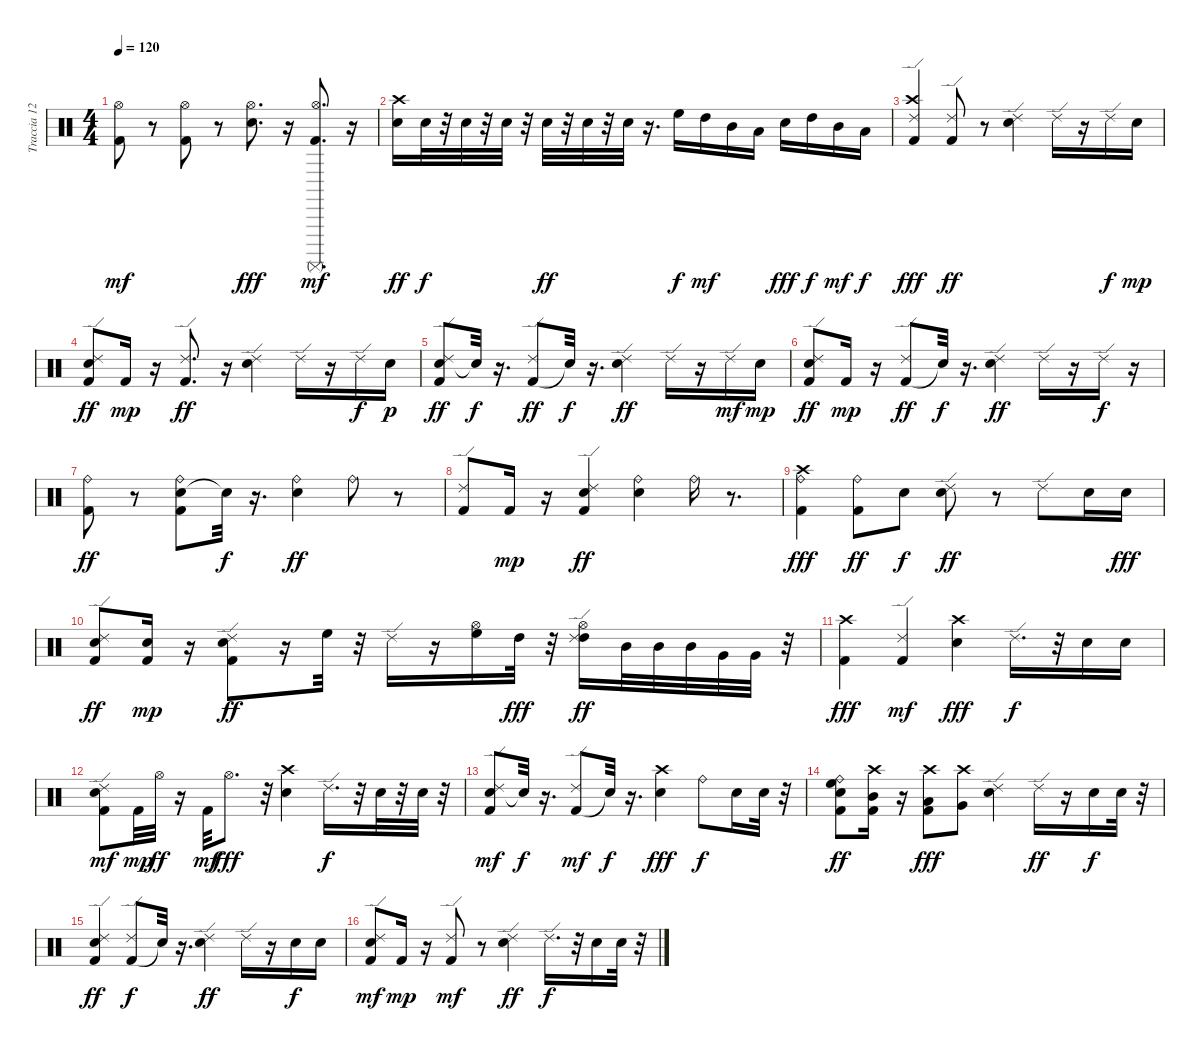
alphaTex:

\track ("Traccia 12-13-14-15-16-17-18" "Traccia 12") {instrument percussion}
\staff {score}
\articulation defaults
\ts (4 4)
\tempo 120
\clef neutral
\ks c
("Hi-Hat (open)" "Kick (hit) 2").8{dy mf} r.8 ("Hi-Hat (open)" "Kick (hit) 2").8 r.8 ("Hi-Hat (open)" "Electric Snare (hit)").8{d dy fff} r.16 ("Surdo (mute)" "Hi-Hat (open)" "Kick (hit) 2").8{d dy mf} r.16 |
("Electric Snare (hit)" "Crash high (hit)").16{dy ff} "Electric Snare (hit)".32{dy f} r.32 "Electric Snare (hit)".32 r.32 "Electric Snare (hit)".32 r.32 "Electric Snare (hit)".32{dy ff} r.32 "Electric Snare (hit)".32 r.32 "Electric Snare (hit)".32 r.16{d} "High Floor Tom (hit)".16{dy f} "High Tom (hit)".16{dy mf} "Mid Tom (hit)".16 "Low Tom (hit)".16 "Electric Snare (hit)".16{dy fff} "High Tom (hit)".16{dy f} "Mid Tom (hit)".16{dy mf} "Low Tom (hit)".16{dy f} |
("Kick (hit) 2" "Ride (edge) 2" "Crash high (hit)").4{dy fff} ("Kick (hit) 2" "Ride (edge) 2").8{dy ff} r.8 ("Electric Snare (hit)" "Ride (edge) 2").4 "Ride (edge) 2".16 r.16 "Ride (edge) 2".16{dy f} "Electric Snare (hit)".16{dy mp} |
("Electric Snare (hit)" "Kick (hit) 2" "Ride (edge) 2").8{dy ff} "Kick (hit) 2".16{dy mp} r.16 ("Kick (hit) 2" "Ride (edge) 2").8{d dy ff} r.16 ("Electric Snare (hit)" "Ride (edge) 2").4 "Ride (edge) 2".16 r.16 "Ride (edge) 2".16{dy f} "Electric Snare (hit)".16{dy p} |
("Electric Snare (hit)" "Kick (hit) 2" "Ride (edge) 2").8{dy ff} "Snare (hit)"{t}.32{dy f} r.16{d} ("Kick (hit) 2" "Ride (edge) 2").8{dy ff} "Snare (hit)"{t}.32{dy f} r.16{d} ("Electric Snare (hit)" "Ride (edge) 2").4{dy ff} "Ride (edge) 2".16 r.16 "Ride (edge) 2".16{dy mf} "Electric Snare (hit)".16{dy mp} |
("Electric Snare (hit)" "Kick (hit) 2" "Ride (edge) 2").8{dy ff} "Kick (hit) 2".16{dy mp} r.16 ("Kick (hit) 2" "Ride (edge) 2").8{dy ff} "Snare (hit)"{t}.32{dy f} r.16{d} ("Electric Snare (hit)" "Ride (edge) 2").4{dy ff} "Ride (edge) 2".16 r.16 "Ride (edge) 2".16{dy f} r.16 |
("Kick (hit) 2" "Ride (bell)").8{dy ff} r.8 ("Electric Snare (hit)" "Kick (hit) 2" "Ride (bell)").8 "Snare (hit)"{t}.32{dy f} r.16{d} ("Electric Snare (hit)" "Ride (bell)").4{dy ff} "Ride (bell)".8 r.8 |
("Kick (hit) 2" "Ride (edge) 2").8 "Kick (hit) 2".16{dy mp} r.16 ("Electric Snare (hit)" "Kick (hit) 2" "Ride (edge) 2").4{dy ff} ("Electric Snare (hit)" "Ride (bell)").4 "Ride (bell)".16 r.8{d} |
("Kick (hit) 2" "Ride (bell)" "Crash high (hit)").4{dy fff} ("Kick (hit) 2" "Ride (bell)").8{dy ff} "Electric Snare (hit)".8{dy f} ("Electric Snare (hit)" "Ride (edge) 2").8{dy ff} r.8 "Ride (edge) 2".8 "Electric Snare (hit)".16 "Electric Snare (hit)".16{dy fff} |
("Electric Snare (hit)" "Kick (hit) 2" "Ride (edge) 2").8{dy ff} ("Electric Snare (hit)" "Kick (hit) 2").16{dy mp} r.16 ("Electric Snare (hit)" "Kick (hit) 2" "Ride (edge) 2").8{dy ff} r.16 "High Floor Tom (hit)".32 r.32 "Ride (edge) 2".16 r.16 ("High Floor Tom (hit)" "Hi-Hat (open)").16 "High Tom (hit)".32{dy fff} r.32 ("High Tom (hit)" "Hi-Hat (open)" "Ride (edge) 2").16{dy ff} "Mid Tom (hit)".32 "Mid Tom (hit)".32 "Mid Tom (hit)".32 "Very Low Tom (hit)".32 "Very Low Tom (hit)".32 r.32 |
("Kick (hit) 2" "Crash high (hit)").4{dy fff} ("Kick (hit) 2" "Ride (edge) 2").4{dy mf} ("Electric Snare (hit)" "Crash high (hit)").4{dy fff} "Ride (edge) 2".16{d dy f} r.32 "Electric Snare (hit)".16 "Electric Snare (hit)".16 |
("Electric Snare (hit)" "Kick (hit) 2" "Ride (edge) 2").8{dy mf} "Kick (hit) 2".32{dy mp} "Hi-Hat (open)".32{dy ff} r.16 "Kick (hit) 2".32{dy mf} "Hi-Hat (open)".8{d dy fff} r.32 ("Electric Snare (hit)" "Crash high (hit)").4 "Ride (edge) 2".16{d dy f} r.32 "Electric Snare (hit)".32 r.32 "Electric Snare (hit)".32 r.32 |
("Electric Snare (hit)" "Kick (hit) 2" "Ride (edge) 2").8{dy mf} "Snare (hit)"{t}.32{dy f} r.16{d} ("Kick (hit) 2" "Ride (edge) 2").8{dy mf} "Snare (hit)"{t}.32{dy f} r.16{d} ("Electric Snare (hit)" "Crash high (hit)").4{dy fff} "Ride (bell)".8{dy f} "Electric Snare (hit)".16 "Electric Snare (hit)".32 r.32 |
("High Floor Tom (hit)" "Electric Snare (hit)" "Kick (hit) 2" "Ride (bell)").8{dy ff} ("Mid Tom (hit)" "Kick (hit) 2" "Crash high (hit)").16 r.16 ("Low Tom (hit)" "Kick (hit) 2" "Crash high (hit)").8{dy fff} ("Very Low Tom (hit)" "Crash high (hit)").8 ("Electric Snare (hit)" "Ride (edge) 2").4 "Ride (edge) 2".16{dy ff} r.16 "Electric Snare (hit)".16{dy f} "Electric Snare (hit)".32 r.32 |
("Electric Snare (hit)" "Kick (hit) 2" "Ride (edge) 2").4{dy ff} ("Kick (hit) 2" "Ride (edge) 2").8{dy f} "Snare (hit)"{t}.32 r.16{d} ("Electric Snare (hit)" "Ride (edge) 2").4{dy ff} "Ride (edge) 2".16 r.16 "Electric Snare (hit)".16{dy f} "Electric Snare (hit)".16 |
("Electric Snare (hit)" "Kick (hit) 2" "Ride (edge) 2").8{dy mf} "Kick (hit) 2".16{dy mp} r.16 ("Kick (hit) 2" "Ride (edge) 2").8{dy mf} r.8 ("Electric Snare (hit)" "Ride (edge) 2").4{dy ff} "Ride (edge) 2".16{d dy f} r.32 "Electric Snare (hit)".16 "Electric Snare (hit)".32 r.32
